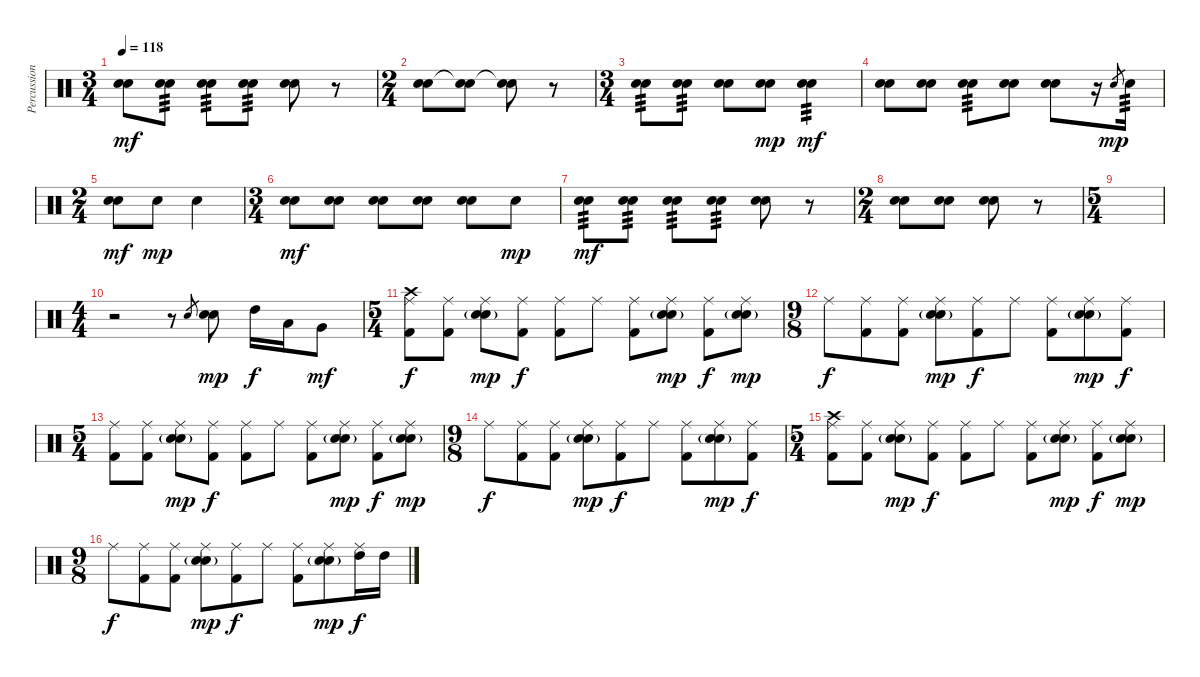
\track ("Percussion" "Percussion") {instrument percussion}
\staff {score}
\articulation defaults
\ts (3 4)
\tempo 118
\clef neutral
\ks c
("Electric Snare (hit)" "Snare (hit) 2").8{dy mf} ("Electric Snare (hit)" "Snare (hit) 2").8{tp 3} ("Electric Snare (hit)" "Snare (hit) 2").8{tp 3} ("Electric Snare (hit)" "Snare (hit) 2").8{tp 3} ("Electric Snare (hit)" "Snare (hit) 2").8 r.8 |
\ts (2 4)
("Electric Snare (hit)" "Snare (hit) 2").8 ("Electric Snare (hit)"{t} "Snare (hit) 2").8 ("Electric Snare (hit)"{t} "Snare (hit) 2").8 r.8 |
\ts (3 4)
("Electric Snare (hit)" "Snare (hit) 2").8{tp 3} ("Electric Snare (hit)" "Snare (hit) 2").8{tp 3} ("Electric Snare (hit)" "Snare (hit) 2").8 ("Electric Snare (hit)" "Snare (hit) 2").8{dy mp} ("Electric Snare (hit)" "Snare (hit) 2").4{tp 3 dy mf} |
("Electric Snare (hit)" "Snare (hit) 2").8 ("Electric Snare (hit)" "Snare (hit) 2").8 ("Electric Snare (hit)" "Snare (hit) 2").8{tp 3} ("Electric Snare (hit)" "Snare (hit) 2").8 ("Electric Snare (hit)" "Snare (hit) 2").8 r.16 "Electric Snare (hit)".8{gr dy mp} "Electric Snare (hit)".16{tp 3} |
\ts (2 4)
("Electric Snare (hit)" "Snare (hit) 2").8{dy mf} "Electric Snare (hit)".8{dy mp} "Electric Snare (hit)".4 |
\ts (3 4)
("Electric Snare (hit)" "Snare (hit) 2").8{dy mf} ("Electric Snare (hit)" "Snare (hit) 2").8 ("Electric Snare (hit)" "Snare (hit) 2").8 ("Electric Snare (hit)" "Snare (hit) 2").8 ("Electric Snare (hit)" "Snare (hit) 2").8 "Electric Snare (hit)".8{dy mp} |
("Electric Snare (hit)" "Snare (hit) 2").8{tp 3 dy mf} ("Electric Snare (hit)" "Snare (hit) 2").8{tp 3} ("Electric Snare (hit)" "Snare (hit) 2").8{tp 3} ("Electric Snare (hit)" "Snare (hit) 2").8{tp 3} ("Electric Snare (hit)" "Snare (hit) 2").8 r.8 |
\ts (2 4)
("Electric Snare (hit)" "Snare (hit) 2").8 ("Electric Snare (hit)" "Snare (hit) 2").8 ("Electric Snare (hit)" "Snare (hit) 2").8 r.8 |
\ts (5 4)
|
\ts (4 4)
r.2 r.8 "Electric Snare (hit)".8{gr} ("Electric Snare (hit)" "Snare (hit) 2").8{dy mp} "High Tom (hit)".16{dy f} "Low Tom (hit)".16 "Very Low Tom (hit)".8{dy mf} |
\ts (5 4)
("Crash high (hit)" "Ride (middle)" "Kick (hit) 2").8{dy f} ("Ride (middle)" "Kick (hit) 2").8 ("Ride (middle)" "Electric Snare (hit)" "Snare (hit) 2"{g}).8{dy mp} ("Ride (middle)" "Kick (hit) 2").8{dy f} ("Ride (middle)" "Kick (hit) 2").8 "Ride (middle)".8 ("Ride (middle)" "Kick (hit) 2").8 ("Ride (middle)" "Electric Snare (hit)" "Snare (hit) 2"{g}).8{dy mp} ("Ride (middle)" "Kick (hit) 2").8{dy f} ("Ride (middle)" "Electric Snare (hit)" "Snare (hit) 2"{g}).8{dy mp} |
\ts (9 8)
"Ride (middle)".8{dy f} ("Ride (middle)" "Kick (hit) 2").8 ("Ride (middle)" "Kick (hit) 2").8 ("Ride (middle)" "Electric Snare (hit)" "Snare (hit) 2"{g}).8{dy mp} ("Ride (middle)" "Kick (hit) 2").8{dy f} "Ride (middle)".8 ("Ride (middle)" "Kick (hit) 2").8 ("Ride (middle)" "Electric Snare (hit)" "Snare (hit) 2"{g}).8{dy mp} ("Ride (middle)" "Kick (hit) 2").8{dy f} |
\ts (5 4)
("Ride (middle)" "Kick (hit) 2").8 ("Ride (middle)" "Kick (hit) 2").8 ("Ride (middle)" "Electric Snare (hit)" "Snare (hit) 2"{g}).8{dy mp} ("Ride (middle)" "Kick (hit) 2").8{dy f} ("Ride (middle)" "Kick (hit) 2").8 "Ride (middle)".8 ("Ride (middle)" "Kick (hit) 2").8 ("Ride (middle)" "Electric Snare (hit)" "Snare (hit) 2"{g}).8{dy mp} ("Ride (middle)" "Kick (hit) 2").8{dy f} ("Ride (middle)" "Electric Snare (hit)" "Snare (hit) 2"{g}).8{dy mp} |
\ts (9 8)
"Ride (middle)".8{dy f} ("Ride (middle)" "Kick (hit) 2").8 ("Ride (middle)" "Kick (hit) 2").8 ("Ride (middle)" "Electric Snare (hit)" "Snare (hit) 2"{g}).8{dy mp} ("Ride (middle)" "Kick (hit) 2").8{dy f} "Ride (middle)".8 ("Ride (middle)" "Kick (hit) 2").8 ("Ride (middle)" "Electric Snare (hit)" "Snare (hit) 2"{g}).8{dy mp} ("Ride (middle)" "Kick (hit) 2").8{dy f} |
\ts (5 4)
("Crash high (hit)" "Ride (middle)" "Kick (hit) 2").8 ("Ride (middle)" "Kick (hit) 2").8 ("Ride (middle)" "Electric Snare (hit)" "Snare (hit) 2"{g}).8{dy mp} ("Ride (middle)" "Kick (hit) 2").8{dy f} ("Ride (middle)" "Kick (hit) 2").8 "Ride (middle)".8 ("Ride (middle)" "Kick (hit) 2").8 ("Ride (middle)" "Electric Snare (hit)" "Snare (hit) 2"{g}).8{dy mp} ("Ride (middle)" "Kick (hit) 2").8{dy f} ("Ride (middle)" "Electric Snare (hit)" "Snare (hit) 2"{g}).8{dy mp} |
\ts (9 8)
"Ride (middle)".8{dy f} ("Ride (middle)" "Kick (hit) 2").8 ("Ride (middle)" "Kick (hit) 2").8 ("Ride (middle)" "Electric Snare (hit)" "Snare (hit) 2"{g}).8{dy mp} ("Ride (middle)" "Kick (hit) 2").8{dy f} "Ride (middle)".8 ("Ride (middle)" "Kick (hit) 2").8 ("Ride (middle)" "Electric Snare (hit)" "Snare (hit) 2"{g}).8{dy mp} ("Ride (middle)" "High Tom (hit)").16{dy f} "High Tom (hit)".16
